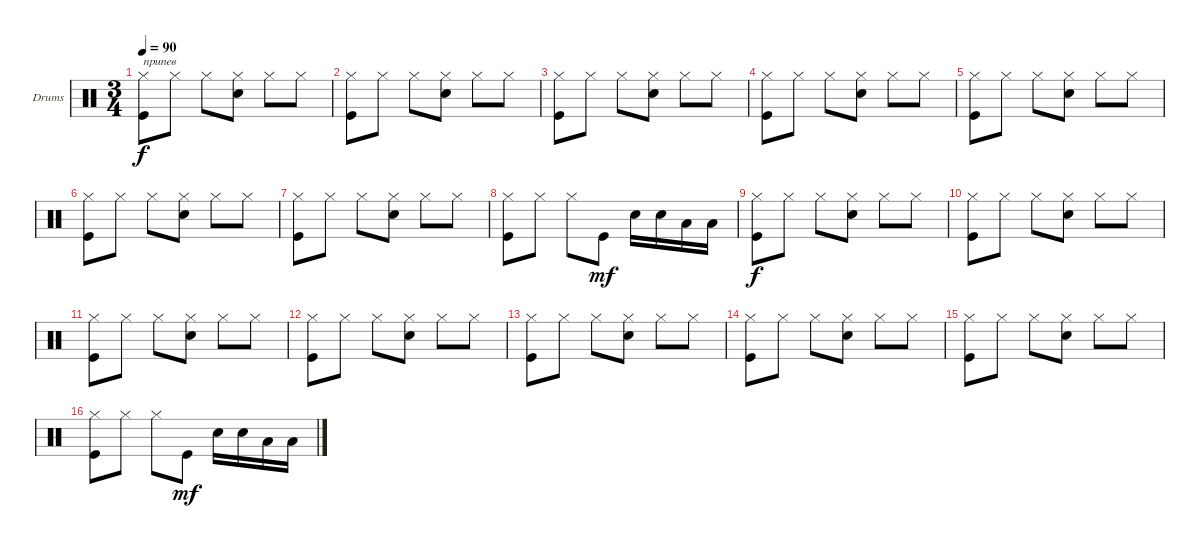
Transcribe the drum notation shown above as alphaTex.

\defaultSystemsLayout 4
\bracketExtendMode groupsimilarinstruments
\firstSystemTrackNameOrientation horizontal
\otherSystemsTrackNameOrientation horizontal
\track ("Саня" "Drums") {instrument percussion}
\staff {score}
\articulation defaults
\ts (3 4)
\tempo 90
\clef neutral
\ks c
("Kick (hit)" "Hi-Hat (closed)").8{txt "припев" dy f} "Hi-Hat (closed)".8 "Hi-Hat (closed)".8 ("Snare (hit) 2" "Hi-Hat (closed)").8 "Hi-Hat (closed)".8 "Hi-Hat (closed)".8 |
("Kick (hit)" "Hi-Hat (closed)").8 "Hi-Hat (closed)".8 "Hi-Hat (closed)".8 ("Snare (hit) 2" "Hi-Hat (closed)").8 "Hi-Hat (closed)".8 "Hi-Hat (closed)".8 |
("Kick (hit)" "Hi-Hat (closed)").8 "Hi-Hat (closed)".8 "Hi-Hat (closed)".8 ("Snare (hit) 2" "Hi-Hat (closed)").8 "Hi-Hat (closed)".8 "Hi-Hat (closed)".8 |
("Kick (hit)" "Hi-Hat (closed)").8 "Hi-Hat (closed)".8 "Hi-Hat (closed)".8 ("Snare (hit) 2" "Hi-Hat (closed)").8 "Hi-Hat (closed)".8 "Hi-Hat (closed)".8 |
("Kick (hit)" "Hi-Hat (closed)").8 "Hi-Hat (closed)".8 "Hi-Hat (closed)".8 ("Snare (hit) 2" "Hi-Hat (closed)").8 "Hi-Hat (closed)".8 "Hi-Hat (closed)".8 |
("Kick (hit)" "Hi-Hat (closed)").8 "Hi-Hat (closed)".8 "Hi-Hat (closed)".8 ("Snare (hit) 2" "Hi-Hat (closed)").8 "Hi-Hat (closed)".8 "Hi-Hat (closed)".8 |
("Kick (hit)" "Hi-Hat (closed)").8 "Hi-Hat (closed)".8 "Hi-Hat (closed)".8 ("Snare (hit) 2" "Hi-Hat (closed)").8 "Hi-Hat (closed)".8 "Hi-Hat (closed)".8 |
("Kick (hit)" "Hi-Hat (closed)").8 "Hi-Hat (closed)".8 "Hi-Hat (closed)".8 "Kick (hit)".8{dy mf} "Snare (hit) 2".16 "Snare (hit) 2".16 "Low Tom (hit)".16 "Low Tom (hit)".16 |
("Kick (hit)" "Hi-Hat (closed)").8{dy f} "Hi-Hat (closed)".8 "Hi-Hat (closed)".8 ("Snare (hit) 2" "Hi-Hat (closed)").8 "Hi-Hat (closed)".8 "Hi-Hat (closed)".8 |
("Kick (hit)" "Hi-Hat (closed)").8 "Hi-Hat (closed)".8 "Hi-Hat (closed)".8 ("Snare (hit) 2" "Hi-Hat (closed)").8 "Hi-Hat (closed)".8 "Hi-Hat (closed)".8 |
("Kick (hit)" "Hi-Hat (closed)").8 "Hi-Hat (closed)".8 "Hi-Hat (closed)".8 ("Snare (hit) 2" "Hi-Hat (closed)").8 "Hi-Hat (closed)".8 "Hi-Hat (closed)".8 |
("Kick (hit)" "Hi-Hat (closed)").8 "Hi-Hat (closed)".8 "Hi-Hat (closed)".8 ("Snare (hit) 2" "Hi-Hat (closed)").8 "Hi-Hat (closed)".8 "Hi-Hat (closed)".8 |
("Kick (hit)" "Hi-Hat (closed)").8 "Hi-Hat (closed)".8 "Hi-Hat (closed)".8 ("Snare (hit) 2" "Hi-Hat (closed)").8 "Hi-Hat (closed)".8 "Hi-Hat (closed)".8 |
("Kick (hit)" "Hi-Hat (closed)").8 "Hi-Hat (closed)".8 "Hi-Hat (closed)".8 ("Snare (hit) 2" "Hi-Hat (closed)").8 "Hi-Hat (closed)".8 "Hi-Hat (closed)".8 |
("Kick (hit)" "Hi-Hat (closed)").8 "Hi-Hat (closed)".8 "Hi-Hat (closed)".8 ("Snare (hit) 2" "Hi-Hat (closed)").8 "Hi-Hat (closed)".8 "Hi-Hat (closed)".8 |
("Kick (hit)" "Hi-Hat (closed)").8 "Hi-Hat (closed)".8 "Hi-Hat (closed)".8 "Kick (hit)".8{dy mf} "Snare (hit) 2".16 "Snare (hit) 2".16 "Low Tom (hit)".16 "Low Tom (hit)".16
